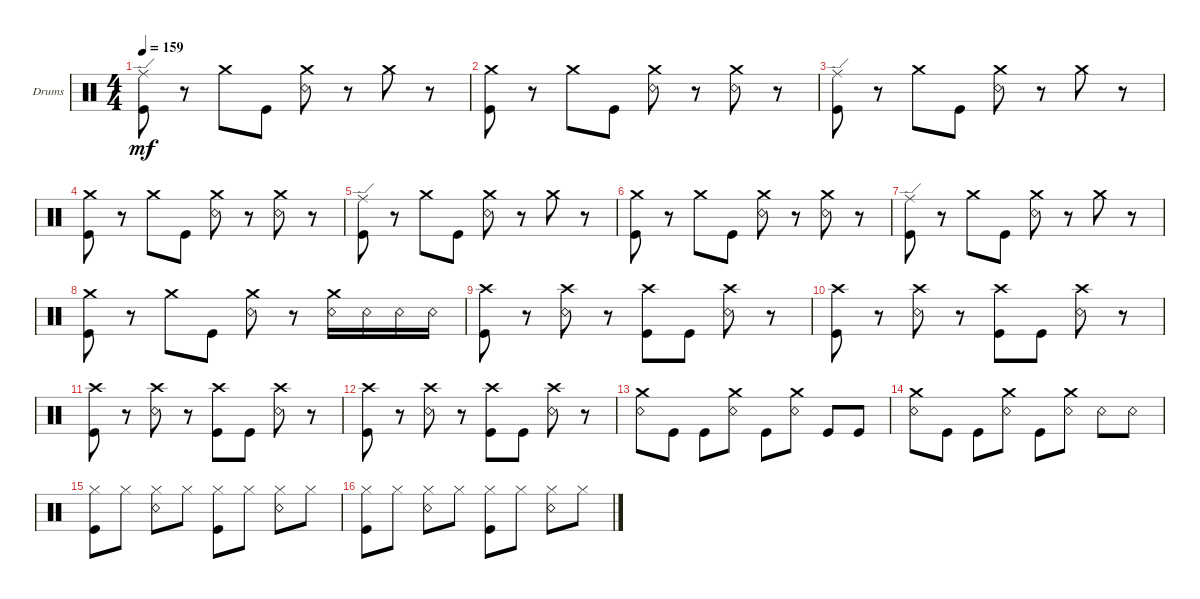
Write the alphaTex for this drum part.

\defaultSystemsLayout 4
\bracketExtendMode groupsimilarinstruments
\firstSystemTrackNameOrientation horizontal
\otherSystemsTrackNameOrientation horizontal
\track ("Drumkit" "Drums") {instrument percussion}
\staff {score}
\articulation defaults
\ts (4 4)
\tempo 159
\clef neutral
\ks c
("Ride (edge)" "Kick (hit)").8{dy mf} r.8 "Crash medium (hit)".8 "Kick (hit)".8 ("Crash medium (hit)" "Snare (rim shot)").8 r.8 "Crash medium (hit)".8 r.8 |
("Crash medium (hit)" "Kick (hit)").8 r.8 "Crash medium (hit)".8 "Kick (hit)".8 ("Crash medium (hit)" "Snare (rim shot)").8 r.8 ("Crash medium (hit)" "Snare (rim shot)").8 r.8 |
("Ride (edge)" "Kick (hit)").8 r.8 "Crash medium (hit)".8 "Kick (hit)".8 ("Crash medium (hit)" "Snare (rim shot)").8 r.8 "Crash medium (hit)".8 r.8 |
("Crash medium (hit)" "Kick (hit)").8 r.8 "Crash medium (hit)".8 "Kick (hit)".8 ("Crash medium (hit)" "Snare (rim shot)").8 r.8 ("Crash medium (hit)" "Snare (rim shot)").8 r.8 |
("Ride (edge)" "Kick (hit)").8 r.8 "Crash medium (hit)".8 "Kick (hit)".8 ("Crash medium (hit)" "Snare (rim shot)").8 r.8 "Crash medium (hit)".8 r.8 |
("Crash medium (hit)" "Kick (hit)").8 r.8 "Crash medium (hit)".8 "Kick (hit)".8 ("Crash medium (hit)" "Snare (rim shot)").8 r.8 ("Crash medium (hit)" "Snare (rim shot)").8 r.8 |
("Ride (edge)" "Kick (hit)").8 r.8 "Crash medium (hit)".8 "Kick (hit)".8 ("Crash medium (hit)" "Snare (rim shot)").8 r.8 "Crash medium (hit)".8 r.8 |
("Crash medium (hit)" "Kick (hit)").8 r.8 "Crash medium (hit)".8 "Kick (hit)".8 ("Crash medium (hit)" "Snare (rim shot)").8 r.8 ("Crash medium (hit)" "Snare (rim shot)").16 "Snare (rim shot)".16 "Snare (rim shot)".16 "Snare (rim shot)".16 |
("Crash high (hit)" "Kick (hit)").8 r.8 ("Crash high (hit)" "Snare (rim shot)").8 r.8 ("Crash high (hit)" "Kick (hit)").8 "Kick (hit)".8 ("Crash high (hit)" "Snare (rim shot)").8 r.8 |
("Crash high (hit)" "Kick (hit)").8 r.8 ("Crash high (hit)" "Snare (rim shot)").8 r.8 ("Crash high (hit)" "Kick (hit)").8 "Kick (hit)".8 ("Crash high (hit)" "Snare (rim shot)").8 r.8 |
("Crash high (hit)" "Kick (hit)").8 r.8 ("Crash high (hit)" "Snare (rim shot)").8 r.8 ("Crash high (hit)" "Kick (hit)").8 "Kick (hit)".8 ("Crash high (hit)" "Snare (rim shot)").8 r.8 |
("Crash high (hit)" "Kick (hit)").8 r.8 ("Crash high (hit)" "Snare (rim shot)").8 r.8 ("Crash high (hit)" "Kick (hit)").8 "Kick (hit)".8 ("Crash high (hit)" "Snare (rim shot)").8 r.8 |
("Snare (rim shot)" "Crash medium (hit)").8 "Kick (hit)".8 "Kick (hit)".8 ("Snare (rim shot)" "Crash medium (hit)").8 "Kick (hit)".8 ("Snare (rim shot)" "Crash medium (hit)").8 "Kick (hit)".8 "Kick (hit)".8 |
("Snare (rim shot)" "Crash medium (hit)").8 "Kick (hit)".8 "Kick (hit)".8 ("Snare (rim shot)" "Crash medium (hit)").8 "Kick (hit)".8 ("Snare (rim shot)" "Crash medium (hit)").8 "Snare (rim shot)".8 "Snare (rim shot)".8 |
("Kick (hit)" "Hi-Hat (closed)").8 "Hi-Hat (closed)".8 ("Hi-Hat (closed)" "Snare (rim shot)").8 "Hi-Hat (closed)".8 ("Hi-Hat (closed)" "Kick (hit)").8 "Hi-Hat (closed)".8 ("Hi-Hat (closed)" "Snare (rim shot)").8 "Hi-Hat (closed)".8 |
("Kick (hit)" "Hi-Hat (closed)").8 "Hi-Hat (closed)".8 ("Hi-Hat (closed)" "Snare (rim shot)").8 "Hi-Hat (closed)".8 ("Hi-Hat (closed)" "Kick (hit)").8 "Hi-Hat (closed)".8 ("Hi-Hat (closed)" "Snare (rim shot)").8 "Hi-Hat (closed)".8
